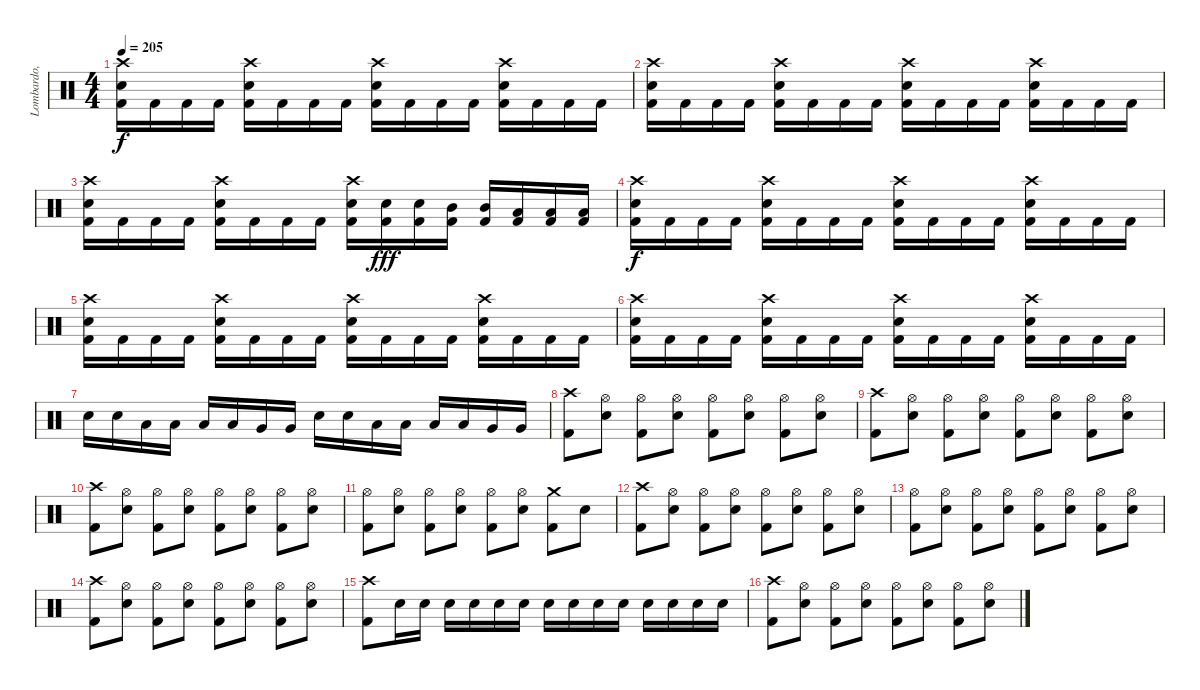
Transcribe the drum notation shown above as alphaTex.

\track ("Lombardo, Dave" "Lombardo, ") {instrument percussion}
\staff {score}
\articulation defaults
\ts (4 4)
\tempo 205
\clef neutral
\ks c
("Crash high (hit)" "Electric Snare (hit)" "Kick (hit) 2").16{dy f} "Kick (hit) 2".16 "Kick (hit) 2".16 "Kick (hit) 2".16 ("Crash high (hit)" "Electric Snare (hit)" "Kick (hit) 2").16 "Kick (hit) 2".16 "Kick (hit) 2".16 "Kick (hit) 2".16 ("Crash high (hit)" "Electric Snare (hit)" "Kick (hit) 2").16 "Kick (hit) 2".16 "Kick (hit) 2".16 "Kick (hit) 2".16 ("Crash high (hit)" "Electric Snare (hit)" "Kick (hit) 2").16 "Kick (hit) 2".16 "Kick (hit) 2".16 "Kick (hit) 2".16 |
("Crash high (hit)" "Electric Snare (hit)" "Kick (hit) 2").16 "Kick (hit) 2".16 "Kick (hit) 2".16 "Kick (hit) 2".16 ("Crash high (hit)" "Electric Snare (hit)" "Kick (hit) 2").16 "Kick (hit) 2".16 "Kick (hit) 2".16 "Kick (hit) 2".16 ("Crash high (hit)" "Electric Snare (hit)" "Kick (hit) 2").16 "Kick (hit) 2".16 "Kick (hit) 2".16 "Kick (hit) 2".16 ("Crash high (hit)" "Electric Snare (hit)" "Kick (hit) 2").16 "Kick (hit) 2".16 "Kick (hit) 2".16 "Kick (hit) 2".16 |
("Crash high (hit)" "Electric Snare (hit)" "Kick (hit) 2").16 "Kick (hit) 2".16 "Kick (hit) 2".16 "Kick (hit) 2".16 ("Crash high (hit)" "Electric Snare (hit)" "Kick (hit) 2").16 "Kick (hit) 2".16 "Kick (hit) 2".16 "Kick (hit) 2".16 ("Crash high (hit)" "Electric Snare (hit)" "Kick (hit) 2").16 ("Electric Snare (hit)" "Kick (hit) 2").16{dy fff} ("Electric Snare (hit)" "Kick (hit) 2").16 ("Mid Tom (hit)" "Kick (hit) 2").16 ("Mid Tom (hit)" "Kick (hit) 2").16 ("Low Tom (hit)" "Kick (hit) 2").16 ("Low Tom (hit)" "Kick (hit) 2").16 ("Low Tom (hit)" "Kick (hit) 2").16 |
("Crash high (hit)" "Electric Snare (hit)" "Kick (hit) 2").16{dy f} "Kick (hit) 2".16 "Kick (hit) 2".16 "Kick (hit) 2".16 ("Crash high (hit)" "Electric Snare (hit)" "Kick (hit) 2").16 "Kick (hit) 2".16 "Kick (hit) 2".16 "Kick (hit) 2".16 ("Crash high (hit)" "Electric Snare (hit)" "Kick (hit) 2").16 "Kick (hit) 2".16 "Kick (hit) 2".16 "Kick (hit) 2".16 ("Crash high (hit)" "Electric Snare (hit)" "Kick (hit) 2").16 "Kick (hit) 2".16 "Kick (hit) 2".16 "Kick (hit) 2".16 |
("Crash high (hit)" "Electric Snare (hit)" "Kick (hit) 2").16 "Kick (hit) 2".16 "Kick (hit) 2".16 "Kick (hit) 2".16 ("Crash high (hit)" "Electric Snare (hit)" "Kick (hit) 2").16 "Kick (hit) 2".16 "Kick (hit) 2".16 "Kick (hit) 2".16 ("Crash high (hit)" "Electric Snare (hit)" "Kick (hit) 2").16 "Kick (hit) 2".16 "Kick (hit) 2".16 "Kick (hit) 2".16 ("Crash high (hit)" "Electric Snare (hit)" "Kick (hit) 2").16 "Kick (hit) 2".16 "Kick (hit) 2".16 "Kick (hit) 2".16 |
("Crash high (hit)" "Electric Snare (hit)" "Kick (hit) 2").16 "Kick (hit) 2".16 "Kick (hit) 2".16 "Kick (hit) 2".16 ("Crash high (hit)" "Electric Snare (hit)" "Kick (hit) 2").16 "Kick (hit) 2".16 "Kick (hit) 2".16 "Kick (hit) 2".16 ("Crash high (hit)" "Electric Snare (hit)" "Kick (hit) 2").16 "Kick (hit) 2".16 "Kick (hit) 2".16 "Kick (hit) 2".16 ("Crash high (hit)" "Electric Snare (hit)" "Kick (hit) 2").16 "Kick (hit) 2".16 "Kick (hit) 2".16 "Kick (hit) 2".16 |
"Electric Snare (hit)".16 "Electric Snare (hit)".16 "Low Tom (hit)".16 "Low Tom (hit)".16 "Low Tom (hit)".16 "Low Tom (hit)".16 "Very Low Tom (hit)".16 "Very Low Tom (hit)".16 "Electric Snare (hit)".16 "Electric Snare (hit)".16 "Low Tom (hit)".16 "Low Tom (hit)".16 "Low Tom (hit)".16 "Low Tom (hit)".16 "Very Low Tom (hit)".16 "Very Low Tom (hit)".16 |
("Crash high (hit)" "Kick (hit) 2").8 ("Electric Snare (hit)" "Hi-Hat (open)").8 ("Kick (hit) 2" "Hi-Hat (open)").8 ("Electric Snare (hit)" "Hi-Hat (open)").8 ("Kick (hit) 2" "Hi-Hat (open)").8 ("Electric Snare (hit)" "Hi-Hat (open)").8 ("Kick (hit) 2" "Hi-Hat (open)").8 ("Electric Snare (hit)" "Hi-Hat (open)").8 |
("Crash high (hit)" "Kick (hit) 2").8 ("Electric Snare (hit)" "Hi-Hat (open)").8 ("Kick (hit) 2" "Hi-Hat (open)").8 ("Electric Snare (hit)" "Hi-Hat (open)").8 ("Kick (hit) 2" "Hi-Hat (open)").8 ("Electric Snare (hit)" "Hi-Hat (open)").8 ("Kick (hit) 2" "Hi-Hat (open)").8 ("Electric Snare (hit)" "Hi-Hat (open)").8 |
("Crash high (hit)" "Kick (hit) 2").8 ("Electric Snare (hit)" "Hi-Hat (open)").8 ("Kick (hit) 2" "Hi-Hat (open)").8 ("Electric Snare (hit)" "Hi-Hat (open)").8 ("Kick (hit) 2" "Hi-Hat (open)").8 ("Electric Snare (hit)" "Hi-Hat (open)").8 ("Kick (hit) 2" "Hi-Hat (open)").8 ("Electric Snare (hit)" "Hi-Hat (open)").8 |
("Hi-Hat (open)" "Kick (hit) 2").8 ("Electric Snare (hit)" "Hi-Hat (open)").8 ("Kick (hit) 2" "Hi-Hat (open)").8 ("Electric Snare (hit)" "Hi-Hat (open)").8 ("Kick (hit) 2" "Hi-Hat (open)").8 ("Electric Snare (hit)" "Hi-Hat (open)").8 ("Kick (hit) 2" "Crash medium (hit)").8 "Electric Snare (hit)".8 |
("Crash high (hit)" "Kick (hit) 2").8 ("Electric Snare (hit)" "Hi-Hat (open)").8 ("Kick (hit) 2" "Hi-Hat (open)").8 ("Electric Snare (hit)" "Hi-Hat (open)").8 ("Kick (hit) 2" "Hi-Hat (open)").8 ("Electric Snare (hit)" "Hi-Hat (open)").8 ("Kick (hit) 2" "Hi-Hat (open)").8 ("Electric Snare (hit)" "Hi-Hat (open)").8 |
("Hi-Hat (open)" "Kick (hit) 2").8 ("Electric Snare (hit)" "Hi-Hat (open)").8 ("Kick (hit) 2" "Hi-Hat (open)").8 ("Electric Snare (hit)" "Hi-Hat (open)").8 ("Kick (hit) 2" "Hi-Hat (open)").8 ("Electric Snare (hit)" "Hi-Hat (open)").8 ("Kick (hit) 2" "Hi-Hat (open)").8 ("Electric Snare (hit)" "Hi-Hat (open)").8 |
("Crash high (hit)" "Kick (hit) 2").8 ("Electric Snare (hit)" "Hi-Hat (open)").8 ("Kick (hit) 2" "Hi-Hat (open)").8 ("Electric Snare (hit)" "Hi-Hat (open)").8 ("Kick (hit) 2" "Hi-Hat (open)").8 ("Electric Snare (hit)" "Hi-Hat (open)").8 ("Kick (hit) 2" "Hi-Hat (open)").8 ("Electric Snare (hit)" "Hi-Hat (open)").8 |
("Kick (hit) 2" "Crash high (hit)").8 "Electric Snare (hit)".16 "Electric Snare (hit)".16 "Electric Snare (hit)".16 "Electric Snare (hit)".16 "Electric Snare (hit)".16 "Electric Snare (hit)".16 "Electric Snare (hit)".16 "Electric Snare (hit)".16 "Electric Snare (hit)".16 "Electric Snare (hit)".16 "Electric Snare (hit)".16 "Electric Snare (hit)".16 "Electric Snare (hit)".16 "Electric Snare (hit)".16 |
("Crash high (hit)" "Kick (hit) 2").8 ("Electric Snare (hit)" "Hi-Hat (open)").8 ("Kick (hit) 2" "Hi-Hat (open)").8 ("Electric Snare (hit)" "Hi-Hat (open)").8 ("Kick (hit) 2" "Hi-Hat (open)").8 ("Electric Snare (hit)" "Hi-Hat (open)").8 ("Kick (hit) 2" "Hi-Hat (open)").8 ("Electric Snare (hit)" "Hi-Hat (open)").8
